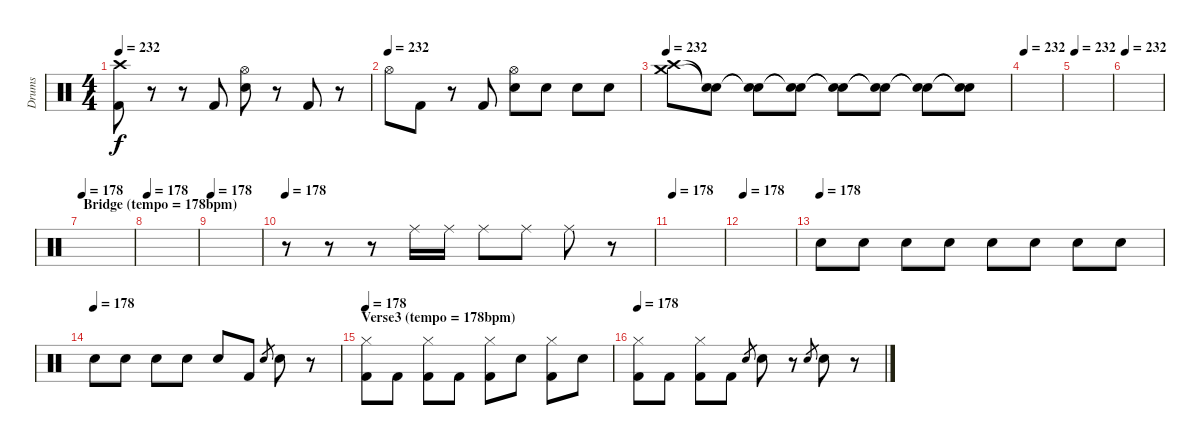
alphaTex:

\track ("Drums" "Drums") {instrument percussion}
\staff {score}
\articulation defaults
\ts (4 4)
\tempo 232
\clef neutral
\ks c
("Crash high (hit)" "Kick (hit) 2").8{dy f} r.8 r.8 "Kick (hit) 2".8 ("Hi-Hat (open)" "Snare (hit) 2").8 r.8 "Kick (hit) 2".8 r.8 |
\tempo (232)
"Hi-Hat (open)".8 "Kick (hit) 2".8 r.8 "Kick (hit) 2".8 ("Hi-Hat (open)" "Snare (hit) 2").8 "Snare (hit) 2".8 "Snare (hit) 2".8 "Snare (hit) 2".8 |
\tempo 232
("Crash high (hit)" "Crash medium (hit)").8 ("Snare (hit)"{t} "Snare (hit)"{t}).8 ("Snare (hit)"{t} "Snare (hit)"{t}).8 ("Snare (hit)"{t} "Snare (hit)"{t}).8 ("Snare (hit)"{t} "Snare (hit)"{t}).8 ("Snare (hit)"{t} "Snare (hit)"{t}).8 ("Snare (hit)"{t} "Snare (hit)"{t}).8 ("Snare (hit)"{t} "Snare (hit)"{t}).8 |
\tempo 232
|
\tempo 232
|
\tempo 232
|
\section ("" "Bridge (tempo = 178bpm)")
\tempo 178
|
\tempo 178
|
\tempo 178
|
\tempo 178
r.8 r.8 r.8 "Ride (middle)".16 "Ride (middle)".16 "Ride (middle)".8 "Ride (middle)".8 "Ride (middle)".8 r.8 |
\tempo 178
|
\tempo 178
|
\tempo (178)
"Snare (hit) 2".8 "Snare (hit) 2".8 "Snare (hit) 2".8 "Snare (hit) 2".8 "Snare (hit) 2".8 "Snare (hit) 2".8 "Snare (hit) 2".8 "Snare (hit) 2".8 |
\tempo (178)
"Snare (hit) 2".8 "Snare (hit) 2".8 "Snare (hit) 2".8 "Snare (hit) 2".8 "Snare (hit) 2".8 "Kick (hit) 2".8 "Snare (hit) 2".8{gr} "Snare (hit) 2".8 r.8 |
\section ("" "Verse3 (tempo = 178bpm)")
\tempo 178
("Hi-Hat (closed)" "Kick (hit) 2").8 "Kick (hit) 2".8 ("Hi-Hat (closed)" "Kick (hit) 2").8 "Kick (hit) 2".8 ("Hi-Hat (closed)" "Kick (hit) 2").8 "Snare (hit) 2".8 ("Hi-Hat (closed)" "Kick (hit) 2").8 "Snare (hit) 2".8 |
\tempo 178
("Hi-Hat (closed)" "Kick (hit) 2").8 "Kick (hit) 2".8 ("Hi-Hat (closed)" "Kick (hit) 2").8 "Kick (hit) 2".8 "Snare (hit) 2".8{gr} "Snare (hit) 2".8 r.8 "Snare (hit) 2".8{gr} "Snare (hit) 2".8 r.8
